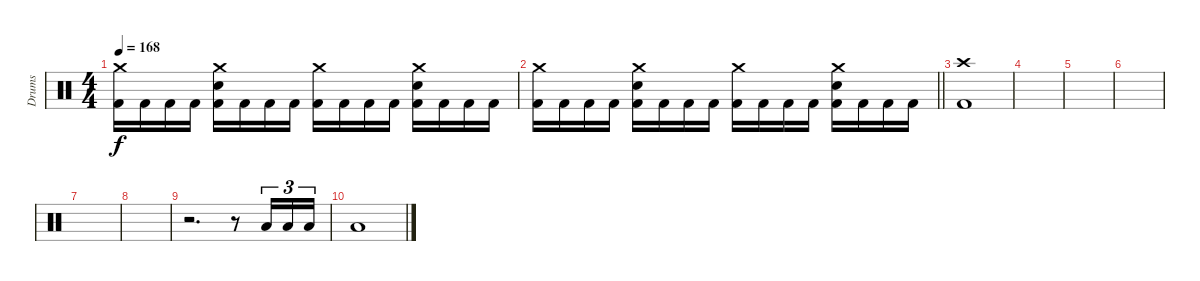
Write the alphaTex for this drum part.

\track ("Drums" "Drums") {instrument percussion}
\staff {score}
\articulation defaults
\ts (4 4)
\tempo 168
\clef neutral
\ks c
("Crash medium (hit)" "Kick (hit) 2").16{dy f} "Kick (hit) 2".16 "Kick (hit) 2".16 "Kick (hit) 2".16 ("Crash medium (hit)" "Snare (hit) 2" "Kick (hit) 2").16 "Kick (hit) 2".16 "Kick (hit) 2".16 "Kick (hit) 2".16 ("Crash medium (hit)" "Kick (hit) 2").16 "Kick (hit) 2".16 "Kick (hit) 2".16 "Kick (hit) 2".16 ("Crash medium (hit)" "Snare (hit) 2" "Kick (hit) 2").16 "Kick (hit) 2".16 "Kick (hit) 2".16 "Kick (hit) 2".16 |
\barLineRight lightlight
("Crash medium (hit)" "Kick (hit) 2").16 "Kick (hit) 2".16 "Kick (hit) 2".16 "Kick (hit) 2".16 ("Crash medium (hit)" "Snare (hit) 2" "Kick (hit) 2").16 "Kick (hit) 2".16 "Kick (hit) 2".16 "Kick (hit) 2".16 ("Crash medium (hit)" "Kick (hit) 2").16 "Kick (hit) 2".16 "Kick (hit) 2".16 "Kick (hit) 2".16 ("Crash medium (hit)" "Snare (hit) 2" "Kick (hit) 2").16 "Kick (hit) 2".16 "Kick (hit) 2".16 "Kick (hit) 2".16 |
("Crash high (hit)" "Kick (hit) 2").1 |
|
|
|
|
|
r.2{d} r.8 "Low Tom (hit)".16{tu (3 2)} "Low Tom (hit)".16{tu (3 2)} "Low Tom (hit)".16{tu (3 2)} |
"Low Floor Tom (hit)".1
